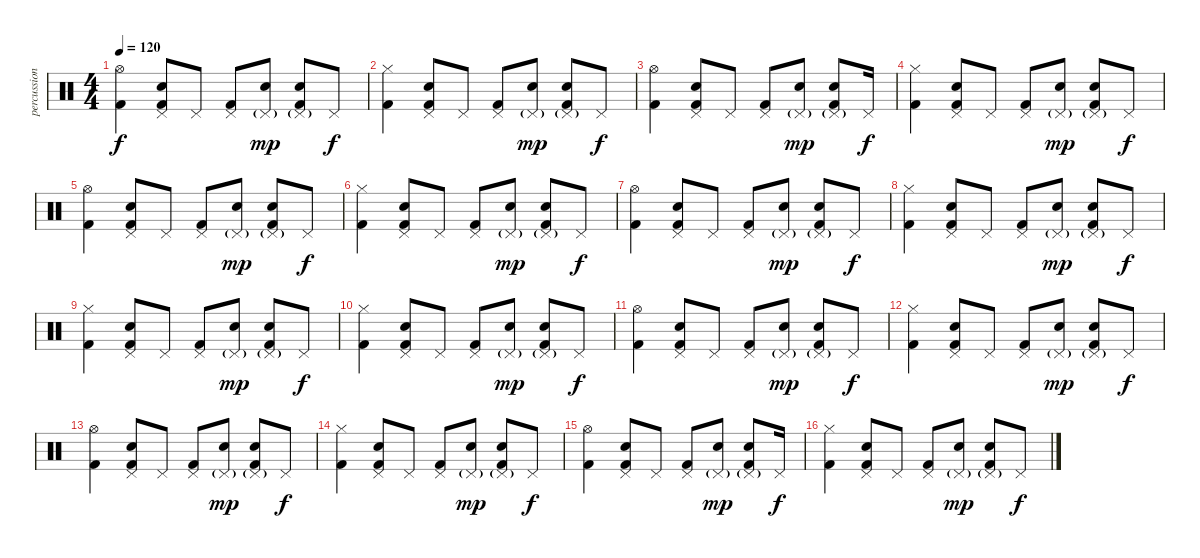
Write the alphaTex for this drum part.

\track ("percussion" "percussion") {instrument percussion}
\staff {score}
\articulation defaults
\ts (4 4)
\tempo 120
\clef neutral
\ks c
("Hi-Hat (open)" "Kick (hit) 2").4{dy f} ("Pedal Hi-Hat (hit)" "Electric Snare (hit)" "Kick (hit) 2").8 "Pedal Hi-Hat (hit)".8 ("Pedal Hi-Hat (hit)" "Kick (hit) 2").8 ("Pedal Hi-Hat (hit)"{g} "Electric Snare (hit)").8{dy mp} ("Pedal Hi-Hat (hit)"{g} "Electric Snare (hit)" "Kick (hit) 2").8 "Pedal Hi-Hat (hit)".8{dy f} |
("Hi-Hat (closed)" "Kick (hit) 2").4 ("Pedal Hi-Hat (hit)" "Electric Snare (hit)" "Kick (hit) 2").8 "Pedal Hi-Hat (hit)".8 ("Pedal Hi-Hat (hit)" "Kick (hit) 2").8 ("Pedal Hi-Hat (hit)"{g} "Electric Snare (hit)").8{dy mp} ("Pedal Hi-Hat (hit)"{g} "Electric Snare (hit)" "Kick (hit) 2").8 "Pedal Hi-Hat (hit)".8{dy f} |
("Hi-Hat (open)" "Kick (hit) 2").4 ("Pedal Hi-Hat (hit)" "Electric Snare (hit)" "Kick (hit) 2").8 "Pedal Hi-Hat (hit)".8 ("Pedal Hi-Hat (hit)" "Kick (hit) 2").8 ("Pedal Hi-Hat (hit)"{g} "Electric Snare (hit)").8{dy mp} ("Pedal Hi-Hat (hit)"{g} "Electric Snare (hit)" "Kick (hit) 2").8 "Pedal Hi-Hat (hit)".16{dy f} |
("Hi-Hat (closed)" "Kick (hit) 2").4 ("Pedal Hi-Hat (hit)" "Electric Snare (hit)" "Kick (hit) 2").8 "Pedal Hi-Hat (hit)".8 ("Pedal Hi-Hat (hit)" "Kick (hit) 2").8 ("Pedal Hi-Hat (hit)"{g} "Electric Snare (hit)").8{dy mp} ("Pedal Hi-Hat (hit)"{g} "Electric Snare (hit)" "Kick (hit) 2").8 "Pedal Hi-Hat (hit)".8{dy f} |
("Hi-Hat (open)" "Kick (hit) 2").4 ("Pedal Hi-Hat (hit)" "Electric Snare (hit)" "Kick (hit) 2").8 "Pedal Hi-Hat (hit)".8 ("Pedal Hi-Hat (hit)" "Kick (hit) 2").8 ("Pedal Hi-Hat (hit)"{g} "Electric Snare (hit)").8{dy mp} ("Pedal Hi-Hat (hit)"{g} "Electric Snare (hit)" "Kick (hit) 2").8 "Pedal Hi-Hat (hit)".8{dy f} |
("Hi-Hat (closed)" "Kick (hit) 2").4 ("Pedal Hi-Hat (hit)" "Electric Snare (hit)" "Kick (hit) 2").8 "Pedal Hi-Hat (hit)".8 ("Pedal Hi-Hat (hit)" "Kick (hit) 2").8 ("Pedal Hi-Hat (hit)"{g} "Electric Snare (hit)").8{dy mp} ("Pedal Hi-Hat (hit)"{g} "Electric Snare (hit)" "Kick (hit) 2").8 "Pedal Hi-Hat (hit)".8{dy f} |
("Hi-Hat (open)" "Kick (hit) 2").4 ("Pedal Hi-Hat (hit)" "Electric Snare (hit)" "Kick (hit) 2").8 "Pedal Hi-Hat (hit)".8 ("Pedal Hi-Hat (hit)" "Kick (hit) 2").8 ("Pedal Hi-Hat (hit)"{g} "Electric Snare (hit)").8{dy mp} ("Pedal Hi-Hat (hit)"{g} "Electric Snare (hit)" "Kick (hit) 2").8 "Pedal Hi-Hat (hit)".8{dy f} |
("Hi-Hat (closed)" "Kick (hit) 2").4 ("Pedal Hi-Hat (hit)" "Electric Snare (hit)" "Kick (hit) 2").8 "Pedal Hi-Hat (hit)".8 ("Pedal Hi-Hat (hit)" "Kick (hit) 2").8 ("Pedal Hi-Hat (hit)"{g} "Electric Snare (hit)").8{dy mp} ("Pedal Hi-Hat (hit)"{g} "Electric Snare (hit)" "Kick (hit) 2").8 "Pedal Hi-Hat (hit)".8{dy f} |
("Hi-Hat (closed)" "Kick (hit) 2").4 ("Pedal Hi-Hat (hit)" "Electric Snare (hit)" "Kick (hit) 2").8 "Pedal Hi-Hat (hit)".8 ("Pedal Hi-Hat (hit)" "Kick (hit) 2").8 ("Pedal Hi-Hat (hit)"{g} "Electric Snare (hit)").8{dy mp} ("Pedal Hi-Hat (hit)"{g} "Electric Snare (hit)" "Kick (hit) 2").8 "Pedal Hi-Hat (hit)".8{dy f} |
("Hi-Hat (closed)" "Kick (hit) 2").4 ("Pedal Hi-Hat (hit)" "Electric Snare (hit)" "Kick (hit) 2").8 "Pedal Hi-Hat (hit)".8 ("Pedal Hi-Hat (hit)" "Kick (hit) 2").8 ("Pedal Hi-Hat (hit)"{g} "Electric Snare (hit)").8{dy mp} ("Pedal Hi-Hat (hit)"{g} "Electric Snare (hit)" "Kick (hit) 2").8 "Pedal Hi-Hat (hit)".8{dy f} |
("Hi-Hat (open)" "Kick (hit) 2").4 ("Pedal Hi-Hat (hit)" "Electric Snare (hit)" "Kick (hit) 2").8 "Pedal Hi-Hat (hit)".8 ("Pedal Hi-Hat (hit)" "Kick (hit) 2").8 ("Pedal Hi-Hat (hit)"{g} "Electric Snare (hit)").8{dy mp} ("Pedal Hi-Hat (hit)"{g} "Electric Snare (hit)" "Kick (hit) 2").8 "Pedal Hi-Hat (hit)".8{dy f} |
("Hi-Hat (closed)" "Kick (hit) 2").4 ("Pedal Hi-Hat (hit)" "Electric Snare (hit)" "Kick (hit) 2").8 "Pedal Hi-Hat (hit)".8 ("Pedal Hi-Hat (hit)" "Kick (hit) 2").8 ("Pedal Hi-Hat (hit)"{g} "Electric Snare (hit)").8{dy mp} ("Pedal Hi-Hat (hit)"{g} "Electric Snare (hit)" "Kick (hit) 2").8 "Pedal Hi-Hat (hit)".8{dy f} |
("Hi-Hat (open)" "Kick (hit) 2").4 ("Pedal Hi-Hat (hit)" "Electric Snare (hit)" "Kick (hit) 2").8 "Pedal Hi-Hat (hit)".8 ("Pedal Hi-Hat (hit)" "Kick (hit) 2").8 ("Pedal Hi-Hat (hit)"{g} "Electric Snare (hit)").8{dy mp} ("Pedal Hi-Hat (hit)"{g} "Electric Snare (hit)" "Kick (hit) 2").8 "Pedal Hi-Hat (hit)".8{dy f} |
("Hi-Hat (closed)" "Kick (hit) 2").4 ("Pedal Hi-Hat (hit)" "Electric Snare (hit)" "Kick (hit) 2").8 "Pedal Hi-Hat (hit)".8 ("Pedal Hi-Hat (hit)" "Kick (hit) 2").8 ("Pedal Hi-Hat (hit)"{g} "Electric Snare (hit)").8{dy mp} ("Pedal Hi-Hat (hit)"{g} "Electric Snare (hit)" "Kick (hit) 2").8 "Pedal Hi-Hat (hit)".8{dy f} |
("Hi-Hat (open)" "Kick (hit) 2").4 ("Pedal Hi-Hat (hit)" "Electric Snare (hit)" "Kick (hit) 2").8 "Pedal Hi-Hat (hit)".8 ("Pedal Hi-Hat (hit)" "Kick (hit) 2").8 ("Pedal Hi-Hat (hit)"{g} "Electric Snare (hit)").8{dy mp} ("Pedal Hi-Hat (hit)"{g} "Electric Snare (hit)" "Kick (hit) 2").8 "Pedal Hi-Hat (hit)".16{dy f} |
("Hi-Hat (closed)" "Kick (hit) 2").4 ("Pedal Hi-Hat (hit)" "Electric Snare (hit)" "Kick (hit) 2").8 "Pedal Hi-Hat (hit)".8 ("Pedal Hi-Hat (hit)" "Kick (hit) 2").8 ("Pedal Hi-Hat (hit)"{g} "Electric Snare (hit)").8{dy mp} ("Pedal Hi-Hat (hit)"{g} "Electric Snare (hit)" "Kick (hit) 2").8 "Pedal Hi-Hat (hit)".8{dy f}
